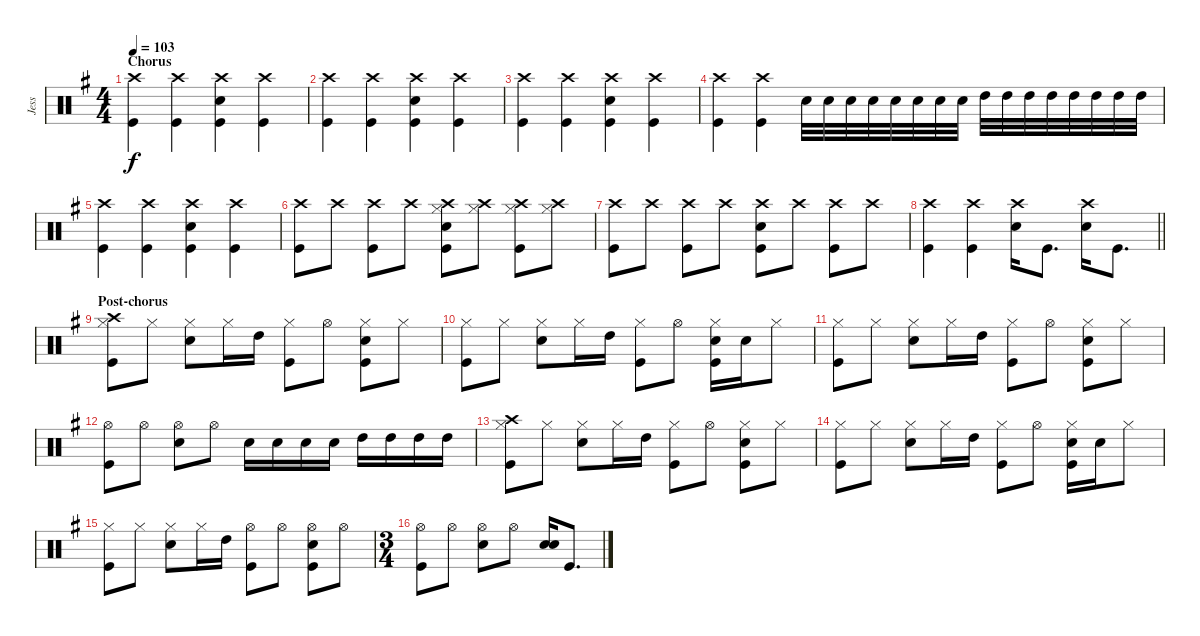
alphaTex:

\track ("Jess" "Jess") {instrument percussion}
\staff {score}
\articulation defaults
\ts (4 4)
\section ("" "Chorus")
\tempo 103
\clef neutral
\ks g
("Crash high (hit)" "Kick (hit)").4{dy f} ("Crash high (hit)" "Kick (hit)").4 ("Crash high (hit)" "Snare (hit) 2" "Kick (hit)").4 ("Crash high (hit)" "Kick (hit)").4 |
("Crash high (hit)" "Kick (hit)").4 ("Crash high (hit)" "Kick (hit)").4 ("Crash high (hit)" "Snare (hit) 2" "Kick (hit)").4 ("Crash high (hit)" "Kick (hit)").4 |
("Crash high (hit)" "Kick (hit)").4 ("Crash high (hit)" "Kick (hit)").4 ("Crash high (hit)" "Snare (hit) 2" "Kick (hit)").4 ("Crash high (hit)" "Kick (hit)").4 |
("Crash high (hit)" "Kick (hit)").4 ("Crash high (hit)" "Kick (hit)").4 "Snare (hit) 2".32 "Snare (hit) 2".32 "Snare (hit) 2".32 "Snare (hit) 2".32 "Snare (hit) 2".32 "Snare (hit) 2".32 "Snare (hit) 2".32 "Snare (hit) 2".32 "High Tom (hit)".32 "High Tom (hit)".32 "High Tom (hit)".32 "High Tom (hit)".32 "High Tom (hit)".32 "High Tom (hit)".32 "High Tom (hit)".32 "High Tom (hit)".32 |
("Crash high (hit)" "Kick (hit)").4 ("Crash high (hit)" "Kick (hit)").4 ("Crash high (hit)" "Snare (hit) 2" "Kick (hit)").4 ("Crash high (hit)" "Kick (hit)").4 |
("Crash high (hit)" "Kick (hit)").8 "Crash high (hit)".8 ("Crash high (hit)" "Kick (hit)").8 "Crash high (hit)".8 ("Crash high (hit)" "Hi-Hat (closed)" "Snare (hit) 2" "Kick (hit)").8 ("Crash high (hit)" "Hi-Hat (closed)").8 ("Crash high (hit)" "Hi-Hat (closed)" "Kick (hit)").8 ("Crash high (hit)" "Hi-Hat (closed)").8 |
("Crash high (hit)" "Kick (hit)").8 "Crash high (hit)".8 ("Crash high (hit)" "Kick (hit)").8 "Crash high (hit)".8 ("Crash high (hit)" "Snare (hit) 2" "Kick (hit)").8 "Crash high (hit)".8 ("Crash high (hit)" "Kick (hit)").8 "Crash high (hit)".8 |
\barLineRight lightlight
("Crash high (hit)" "Kick (hit)").4 ("Crash high (hit)" "Kick (hit)").4 ("Crash high (hit)" "Snare (hit) 2").16 "Kick (hit)".8{d} ("Crash high (hit)" "Snare (hit) 2").16 "Kick (hit)".8{d} |
\section ("" "Post-chorus")
("Crash high (hit)" "Hi-Hat (closed)" "Kick (hit)").8 "Hi-Hat (closed)".8 ("Hi-Hat (closed)" "Snare (hit) 2").8 "Hi-Hat (closed)".16 "High Tom (hit)".16 ("Hi-Hat (closed)" "Kick (hit)").8 "Hi-Hat (open)".8 ("Hi-Hat (closed)" "Snare (hit) 2" "Kick (hit)").8 "Hi-Hat (closed)".8 |
("Hi-Hat (closed)" "Kick (hit)").8 "Hi-Hat (closed)".8 ("Hi-Hat (closed)" "Snare (hit) 2").8 "Hi-Hat (closed)".16 "High Tom (hit)".16 ("Hi-Hat (closed)" "Kick (hit)").8 "Hi-Hat (open)".8 ("Hi-Hat (closed)" "Snare (hit) 2" "Kick (hit)").16 "Snare (hit) 2".16 "Hi-Hat (closed)".8 |
("Hi-Hat (closed)" "Kick (hit)").8 "Hi-Hat (closed)".8 ("Hi-Hat (closed)" "Snare (hit) 2").8 "Hi-Hat (closed)".16 "High Tom (hit)".16 ("Hi-Hat (closed)" "Kick (hit)").8 "Hi-Hat (open)".8 ("Hi-Hat (closed)" "Snare (hit) 2" "Kick (hit)").8 "Hi-Hat (closed)".8 |
("Hi-Hat (open)" "Kick (hit)").8 "Hi-Hat (open)".8 ("Hi-Hat (open)" "Snare (hit) 2").8 "Hi-Hat (open)".8 "Snare (hit) 2".16 "Snare (hit) 2".16 "Snare (hit) 2".16 "Snare (hit) 2".16 "High Tom (hit)".16 "High Tom (hit)".16 "High Tom (hit)".16 "High Tom (hit)".16 |
("Crash high (hit)" "Hi-Hat (closed)" "Kick (hit)").8 "Hi-Hat (closed)".8 ("Hi-Hat (closed)" "Snare (hit) 2").8 "Hi-Hat (closed)".16 "High Tom (hit)".16 ("Hi-Hat (closed)" "Kick (hit)").8 "Hi-Hat (open)".8 ("Hi-Hat (closed)" "Snare (hit) 2" "Kick (hit)").8 "Hi-Hat (closed)".8 |
("Hi-Hat (closed)" "Kick (hit)").8 "Hi-Hat (closed)".8 ("Hi-Hat (closed)" "Snare (hit) 2").8 "Hi-Hat (closed)".16 "High Tom (hit)".16 ("Hi-Hat (closed)" "Kick (hit)").8 "Hi-Hat (open)".8 ("Hi-Hat (closed)" "Snare (hit) 2" "Kick (hit)").16 "Snare (hit) 2".16 "Hi-Hat (closed)".8 |
("Hi-Hat (closed)" "Kick (hit)").8 "Hi-Hat (closed)".8 ("Hi-Hat (closed)" "Snare (hit) 2").8 "Hi-Hat (closed)".16 "High Tom (hit)".16 ("Hi-Hat (open)" "Kick (hit)").8 "Hi-Hat (open)".8 ("Hi-Hat (open)" "Snare (hit) 2" "Kick (hit)").8 "Hi-Hat (open)".8 |
\ts (3 4)
("Hi-Hat (open)" "Kick (hit)").8 "Hi-Hat (open)".8 ("Hi-Hat (open)" "Snare (hit) 2").8 "Hi-Hat (open)".8 ("Snare (hit) 2" "Snare (hit) 2").16 "Kick (hit)".8{d}
